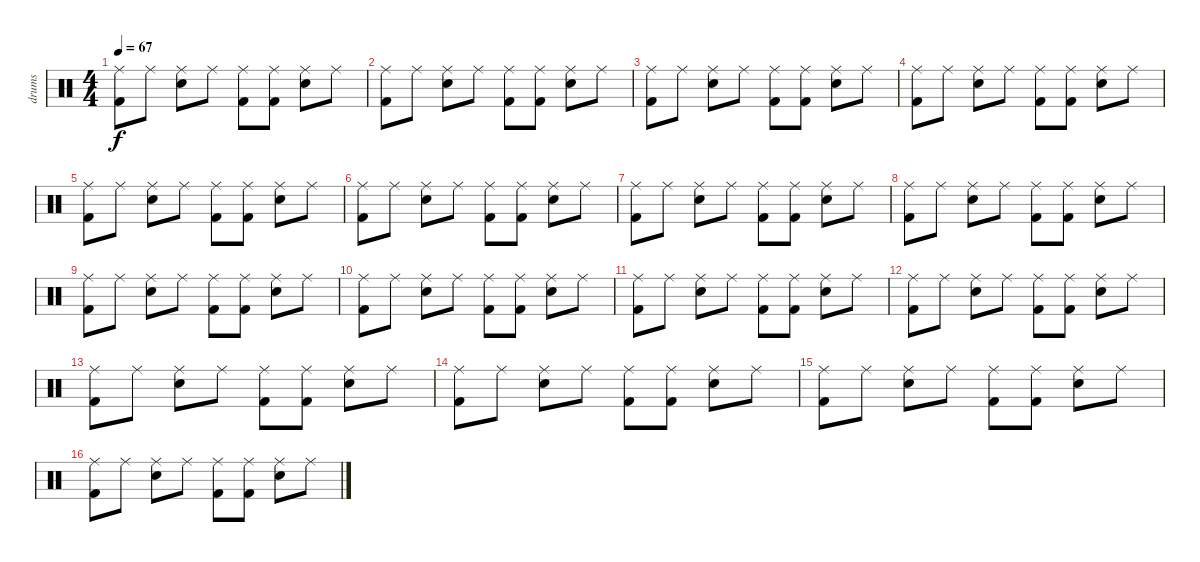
\track ("drums" "drums") {instrument percussion}
\staff {score}
\articulation defaults
\ts (4 4)
\tempo 67
\clef neutral
\ks c
("Ride (middle)" "Kick (hit) 2").8{dy f} "Ride (middle)".8 ("Ride (middle)" "Electric Snare (hit)").8 "Ride (middle)".8 ("Ride (middle)" "Kick (hit) 2").8 ("Ride (middle)" "Kick (hit) 2").8 ("Ride (middle)" "Electric Snare (hit)").8 "Ride (middle)".8 |
("Ride (middle)" "Kick (hit) 2").8 "Ride (middle)".8 ("Ride (middle)" "Electric Snare (hit)").8 "Ride (middle)".8 ("Ride (middle)" "Kick (hit) 2").8 ("Ride (middle)" "Kick (hit) 2").8 ("Ride (middle)" "Electric Snare (hit)").8 "Ride (middle)".8 |
("Ride (middle)" "Kick (hit) 2").8 "Ride (middle)".8 ("Ride (middle)" "Electric Snare (hit)").8 "Ride (middle)".8 ("Ride (middle)" "Kick (hit) 2").8 ("Ride (middle)" "Kick (hit) 2").8 ("Ride (middle)" "Electric Snare (hit)").8 "Ride (middle)".8 |
("Ride (middle)" "Kick (hit) 2").8 "Ride (middle)".8 ("Ride (middle)" "Electric Snare (hit)").8 "Ride (middle)".8 ("Ride (middle)" "Kick (hit) 2").8 ("Ride (middle)" "Kick (hit) 2").8 ("Ride (middle)" "Electric Snare (hit)").8 "Ride (middle)".8 |
("Ride (middle)" "Kick (hit) 2").8 "Ride (middle)".8 ("Ride (middle)" "Electric Snare (hit)").8 "Ride (middle)".8 ("Ride (middle)" "Kick (hit) 2").8 ("Ride (middle)" "Kick (hit) 2").8 ("Ride (middle)" "Electric Snare (hit)").8 "Ride (middle)".8 |
("Ride (middle)" "Kick (hit) 2").8 "Ride (middle)".8 ("Ride (middle)" "Electric Snare (hit)").8 "Ride (middle)".8 ("Ride (middle)" "Kick (hit) 2").8 ("Ride (middle)" "Kick (hit) 2").8 ("Ride (middle)" "Electric Snare (hit)").8 "Ride (middle)".8 |
("Ride (middle)" "Kick (hit) 2").8 "Ride (middle)".8 ("Ride (middle)" "Electric Snare (hit)").8 "Ride (middle)".8 ("Ride (middle)" "Kick (hit) 2").8 ("Ride (middle)" "Kick (hit) 2").8 ("Ride (middle)" "Electric Snare (hit)").8 "Ride (middle)".8 |
("Ride (middle)" "Kick (hit) 2").8 "Ride (middle)".8 ("Ride (middle)" "Electric Snare (hit)").8 "Ride (middle)".8 ("Ride (middle)" "Kick (hit) 2").8 ("Ride (middle)" "Kick (hit) 2").8 ("Ride (middle)" "Electric Snare (hit)").8 "Ride (middle)".8 |
("Ride (middle)" "Kick (hit) 2").8 "Ride (middle)".8 ("Ride (middle)" "Electric Snare (hit)").8 "Ride (middle)".8 ("Ride (middle)" "Kick (hit) 2").8 ("Ride (middle)" "Kick (hit) 2").8 ("Ride (middle)" "Electric Snare (hit)").8 "Ride (middle)".8 |
("Ride (middle)" "Kick (hit) 2").8 "Ride (middle)".8 ("Ride (middle)" "Electric Snare (hit)").8 "Ride (middle)".8 ("Ride (middle)" "Kick (hit) 2").8 ("Ride (middle)" "Kick (hit) 2").8 ("Ride (middle)" "Electric Snare (hit)").8 "Ride (middle)".8 |
("Ride (middle)" "Kick (hit) 2").8 "Ride (middle)".8 ("Ride (middle)" "Electric Snare (hit)").8 "Ride (middle)".8 ("Ride (middle)" "Kick (hit) 2").8 ("Ride (middle)" "Kick (hit) 2").8 ("Ride (middle)" "Electric Snare (hit)").8 "Ride (middle)".8 |
("Ride (middle)" "Kick (hit) 2").8 "Ride (middle)".8 ("Ride (middle)" "Electric Snare (hit)").8 "Ride (middle)".8 ("Ride (middle)" "Kick (hit) 2").8 ("Ride (middle)" "Kick (hit) 2").8 ("Ride (middle)" "Electric Snare (hit)").8 "Ride (middle)".8 |
("Ride (middle)" "Kick (hit) 2").8 "Ride (middle)".8 ("Ride (middle)" "Electric Snare (hit)").8 "Ride (middle)".8 ("Ride (middle)" "Kick (hit) 2").8 ("Ride (middle)" "Kick (hit) 2").8 ("Ride (middle)" "Electric Snare (hit)").8 "Ride (middle)".8 |
("Ride (middle)" "Kick (hit) 2").8 "Ride (middle)".8 ("Ride (middle)" "Electric Snare (hit)").8 "Ride (middle)".8 ("Ride (middle)" "Kick (hit) 2").8 ("Ride (middle)" "Kick (hit) 2").8 ("Ride (middle)" "Electric Snare (hit)").8 "Ride (middle)".8 |
("Ride (middle)" "Kick (hit) 2").8 "Ride (middle)".8 ("Ride (middle)" "Electric Snare (hit)").8 "Ride (middle)".8 ("Ride (middle)" "Kick (hit) 2").8 ("Ride (middle)" "Kick (hit) 2").8 ("Ride (middle)" "Electric Snare (hit)").8 "Ride (middle)".8 |
("Ride (middle)" "Kick (hit) 2").8 "Ride (middle)".8 ("Ride (middle)" "Electric Snare (hit)").8 "Ride (middle)".8 ("Ride (middle)" "Kick (hit) 2").8 ("Ride (middle)" "Kick (hit) 2").8 ("Ride (middle)" "Electric Snare (hit)").8 "Ride (middle)".8
